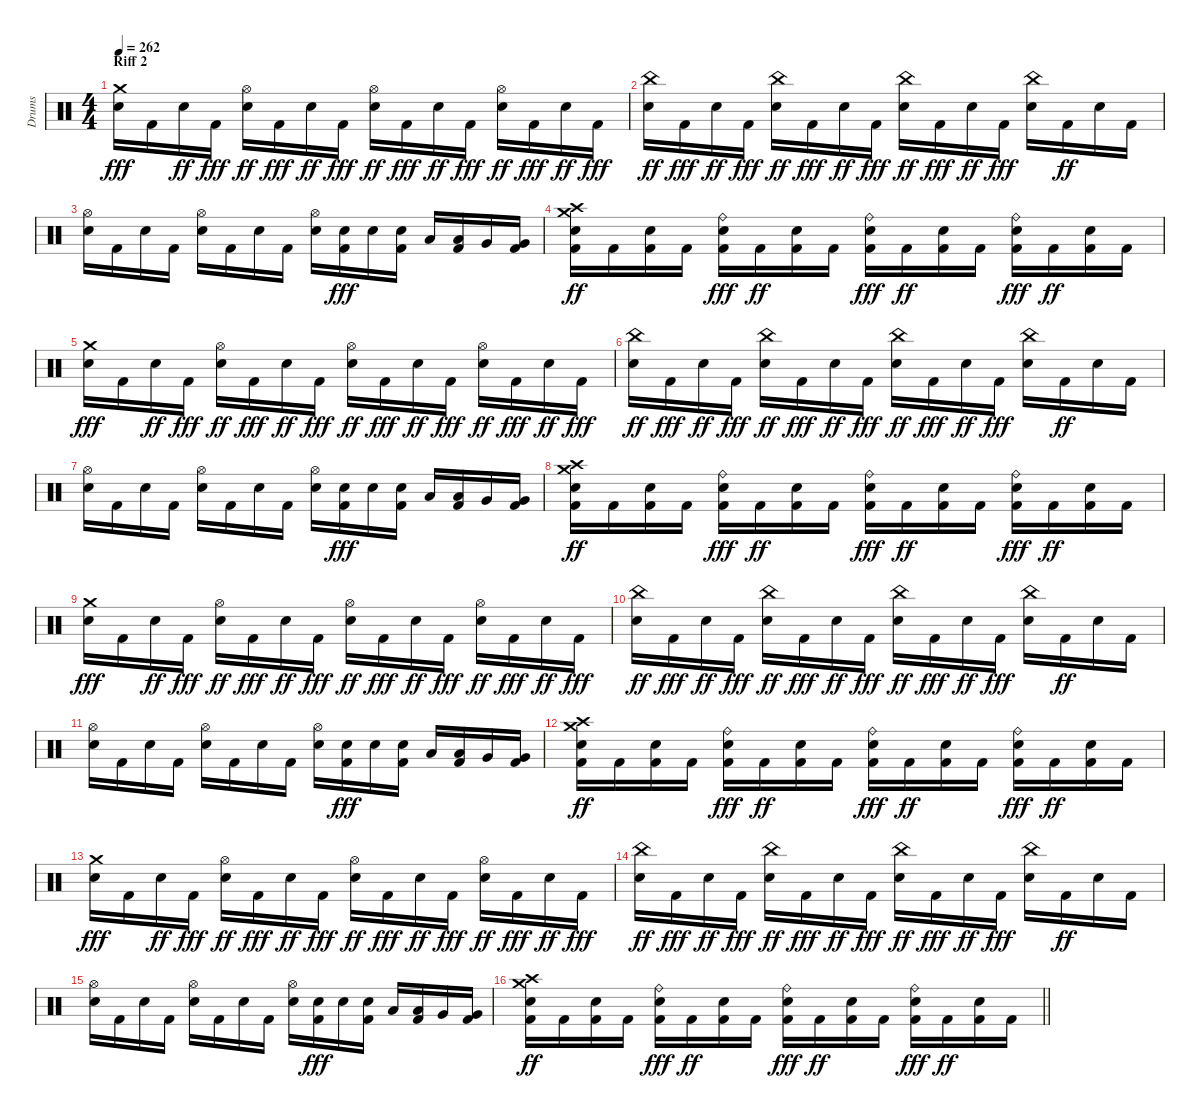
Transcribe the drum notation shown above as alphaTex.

\track ("Drums" "Drums") {instrument percussion}
\staff {score}
\articulation defaults
\ts (4 4)
\section ("" "Riff 2")
\tempo 262
\clef neutral
\ks c
("Crash medium (hit)" "Snare (hit) 2").16{dy fff} "Kick (hit) 2".16 "Snare (hit) 2".16{dy ff} "Kick (hit) 2".16{dy fff} ("Hi-Hat (open)" "Snare (hit) 2").16{dy ff} "Kick (hit) 2".16{dy fff} "Snare (hit) 2".16{dy ff} "Kick (hit) 2".16{dy fff} ("Hi-Hat (open)" "Snare (hit) 2").16{dy ff} "Kick (hit) 2".16{dy fff} "Snare (hit) 2".16{dy ff} "Kick (hit) 2".16{dy fff} ("Hi-Hat (open)" "Snare (hit) 2").16{dy ff} "Kick (hit) 2".16{dy fff} "Snare (hit) 2".16{dy ff} "Kick (hit) 2".16{dy fff} |
("China (hit)" "Snare (hit) 2").16{dy ff} "Kick (hit) 2".16{dy fff} "Snare (hit) 2".16{dy ff} "Kick (hit) 2".16{dy fff} ("China (hit)" "Snare (hit) 2").16{dy ff} "Kick (hit) 2".16{dy fff} "Snare (hit) 2".16{dy ff} "Kick (hit) 2".16{dy fff} ("China (hit)" "Snare (hit) 2").16{dy ff} "Kick (hit) 2".16{dy fff} "Snare (hit) 2".16{dy ff} "Kick (hit) 2".16{dy fff} ("China (hit)" "Snare (hit) 2").16 "Kick (hit) 2".16{dy ff} "Snare (hit) 2".16 "Kick (hit) 2".16 |
("Hi-Hat (open)" "Snare (hit) 2").16 "Kick (hit) 2".16 "Snare (hit) 2".16 "Kick (hit) 2".16 ("Hi-Hat (open)" "Snare (hit) 2").16 "Kick (hit) 2".16 "Snare (hit) 2".16 "Kick (hit) 2".16 ("Hi-Hat (open)" "Snare (hit) 2").16 ("Kick (hit) 2" "Snare (hit) 2").16{dy fff} "Snare (hit) 2".16 ("Kick (hit) 2" "Snare (hit) 2").16 "Low Tom (hit)".16 ("Kick (hit) 2" "Low Tom (hit)").16 "Very Low Tom (hit)".16 ("Kick (hit) 2" "Very Low Tom (hit)").16 |
("Crash high (hit)" "Crash medium (hit)" "Kick (hit) 2" "Snare (hit) 2").16{dy ff} "Kick (hit) 2".16 ("Kick (hit) 2" "Snare (hit) 2").16 "Kick (hit) 2".16 ("Kick (hit) 2" "Snare (hit) 2" "Ride (bell)").16{dy fff} "Kick (hit) 2".16{dy ff} ("Kick (hit) 2" "Snare (hit) 2").16 "Kick (hit) 2".16 ("Kick (hit) 2" "Snare (hit) 2" "Ride (bell)").16{dy fff} "Kick (hit) 2".16{dy ff} ("Kick (hit) 2" "Snare (hit) 2").16 "Kick (hit) 2".16 ("Kick (hit) 2" "Snare (hit) 2" "Ride (bell)").16{dy fff} "Kick (hit) 2".16{dy ff} ("Kick (hit) 2" "Snare (hit) 2").16 "Kick (hit) 2".16 |
("Crash medium (hit)" "Snare (hit) 2").16{dy fff} "Kick (hit) 2".16 "Snare (hit) 2".16{dy ff} "Kick (hit) 2".16{dy fff} ("Hi-Hat (open)" "Snare (hit) 2").16{dy ff} "Kick (hit) 2".16{dy fff} "Snare (hit) 2".16{dy ff} "Kick (hit) 2".16{dy fff} ("Hi-Hat (open)" "Snare (hit) 2").16{dy ff} "Kick (hit) 2".16{dy fff} "Snare (hit) 2".16{dy ff} "Kick (hit) 2".16{dy fff} ("Hi-Hat (open)" "Snare (hit) 2").16{dy ff} "Kick (hit) 2".16{dy fff} "Snare (hit) 2".16{dy ff} "Kick (hit) 2".16{dy fff} |
("China (hit)" "Snare (hit) 2").16{dy ff} "Kick (hit) 2".16{dy fff} "Snare (hit) 2".16{dy ff} "Kick (hit) 2".16{dy fff} ("China (hit)" "Snare (hit) 2").16{dy ff} "Kick (hit) 2".16{dy fff} "Snare (hit) 2".16{dy ff} "Kick (hit) 2".16{dy fff} ("China (hit)" "Snare (hit) 2").16{dy ff} "Kick (hit) 2".16{dy fff} "Snare (hit) 2".16{dy ff} "Kick (hit) 2".16{dy fff} ("China (hit)" "Snare (hit) 2").16 "Kick (hit) 2".16{dy ff} "Snare (hit) 2".16 "Kick (hit) 2".16 |
("Hi-Hat (open)" "Snare (hit) 2").16 "Kick (hit) 2".16 "Snare (hit) 2".16 "Kick (hit) 2".16 ("Hi-Hat (open)" "Snare (hit) 2").16 "Kick (hit) 2".16 "Snare (hit) 2".16 "Kick (hit) 2".16 ("Hi-Hat (open)" "Snare (hit) 2").16 ("Kick (hit) 2" "Snare (hit) 2").16{dy fff} "Snare (hit) 2".16 ("Kick (hit) 2" "Snare (hit) 2").16 "Low Tom (hit)".16 ("Kick (hit) 2" "Low Tom (hit)").16 "Very Low Tom (hit)".16 ("Kick (hit) 2" "Very Low Tom (hit)").16 |
("Crash high (hit)" "Crash medium (hit)" "Kick (hit) 2" "Snare (hit) 2").16{dy ff} "Kick (hit) 2".16 ("Kick (hit) 2" "Snare (hit) 2").16 "Kick (hit) 2".16 ("Kick (hit) 2" "Snare (hit) 2" "Ride (bell)").16{dy fff} "Kick (hit) 2".16{dy ff} ("Kick (hit) 2" "Snare (hit) 2").16 "Kick (hit) 2".16 ("Kick (hit) 2" "Snare (hit) 2" "Ride (bell)").16{dy fff} "Kick (hit) 2".16{dy ff} ("Kick (hit) 2" "Snare (hit) 2").16 "Kick (hit) 2".16 ("Kick (hit) 2" "Snare (hit) 2" "Ride (bell)").16{dy fff} "Kick (hit) 2".16{dy ff} ("Kick (hit) 2" "Snare (hit) 2").16 "Kick (hit) 2".16 |
("Crash medium (hit)" "Snare (hit) 2").16{dy fff} "Kick (hit) 2".16 "Snare (hit) 2".16{dy ff} "Kick (hit) 2".16{dy fff} ("Hi-Hat (open)" "Snare (hit) 2").16{dy ff} "Kick (hit) 2".16{dy fff} "Snare (hit) 2".16{dy ff} "Kick (hit) 2".16{dy fff} ("Hi-Hat (open)" "Snare (hit) 2").16{dy ff} "Kick (hit) 2".16{dy fff} "Snare (hit) 2".16{dy ff} "Kick (hit) 2".16{dy fff} ("Hi-Hat (open)" "Snare (hit) 2").16{dy ff} "Kick (hit) 2".16{dy fff} "Snare (hit) 2".16{dy ff} "Kick (hit) 2".16{dy fff} |
("China (hit)" "Snare (hit) 2").16{dy ff} "Kick (hit) 2".16{dy fff} "Snare (hit) 2".16{dy ff} "Kick (hit) 2".16{dy fff} ("China (hit)" "Snare (hit) 2").16{dy ff} "Kick (hit) 2".16{dy fff} "Snare (hit) 2".16{dy ff} "Kick (hit) 2".16{dy fff} ("China (hit)" "Snare (hit) 2").16{dy ff} "Kick (hit) 2".16{dy fff} "Snare (hit) 2".16{dy ff} "Kick (hit) 2".16{dy fff} ("China (hit)" "Snare (hit) 2").16 "Kick (hit) 2".16{dy ff} "Snare (hit) 2".16 "Kick (hit) 2".16 |
("Hi-Hat (open)" "Snare (hit) 2").16 "Kick (hit) 2".16 "Snare (hit) 2".16 "Kick (hit) 2".16 ("Hi-Hat (open)" "Snare (hit) 2").16 "Kick (hit) 2".16 "Snare (hit) 2".16 "Kick (hit) 2".16 ("Hi-Hat (open)" "Snare (hit) 2").16 ("Kick (hit) 2" "Snare (hit) 2").16{dy fff} "Snare (hit) 2".16 ("Kick (hit) 2" "Snare (hit) 2").16 "Low Tom (hit)".16 ("Kick (hit) 2" "Low Tom (hit)").16 "Very Low Tom (hit)".16 ("Kick (hit) 2" "Very Low Tom (hit)").16 |
("Crash high (hit)" "Crash medium (hit)" "Kick (hit) 2" "Snare (hit) 2").16{dy ff} "Kick (hit) 2".16 ("Kick (hit) 2" "Snare (hit) 2").16 "Kick (hit) 2".16 ("Kick (hit) 2" "Snare (hit) 2" "Ride (bell)").16{dy fff} "Kick (hit) 2".16{dy ff} ("Kick (hit) 2" "Snare (hit) 2").16 "Kick (hit) 2".16 ("Kick (hit) 2" "Snare (hit) 2" "Ride (bell)").16{dy fff} "Kick (hit) 2".16{dy ff} ("Kick (hit) 2" "Snare (hit) 2").16 "Kick (hit) 2".16 ("Kick (hit) 2" "Snare (hit) 2" "Ride (bell)").16{dy fff} "Kick (hit) 2".16{dy ff} ("Kick (hit) 2" "Snare (hit) 2").16 "Kick (hit) 2".16 |
("Crash medium (hit)" "Snare (hit) 2").16{dy fff} "Kick (hit) 2".16 "Snare (hit) 2".16{dy ff} "Kick (hit) 2".16{dy fff} ("Hi-Hat (open)" "Snare (hit) 2").16{dy ff} "Kick (hit) 2".16{dy fff} "Snare (hit) 2".16{dy ff} "Kick (hit) 2".16{dy fff} ("Hi-Hat (open)" "Snare (hit) 2").16{dy ff} "Kick (hit) 2".16{dy fff} "Snare (hit) 2".16{dy ff} "Kick (hit) 2".16{dy fff} ("Hi-Hat (open)" "Snare (hit) 2").16{dy ff} "Kick (hit) 2".16{dy fff} "Snare (hit) 2".16{dy ff} "Kick (hit) 2".16{dy fff} |
("China (hit)" "Snare (hit) 2").16{dy ff} "Kick (hit) 2".16{dy fff} "Snare (hit) 2".16{dy ff} "Kick (hit) 2".16{dy fff} ("China (hit)" "Snare (hit) 2").16{dy ff} "Kick (hit) 2".16{dy fff} "Snare (hit) 2".16{dy ff} "Kick (hit) 2".16{dy fff} ("China (hit)" "Snare (hit) 2").16{dy ff} "Kick (hit) 2".16{dy fff} "Snare (hit) 2".16{dy ff} "Kick (hit) 2".16{dy fff} ("China (hit)" "Snare (hit) 2").16 "Kick (hit) 2".16{dy ff} "Snare (hit) 2".16 "Kick (hit) 2".16 |
("Hi-Hat (open)" "Snare (hit) 2").16 "Kick (hit) 2".16 "Snare (hit) 2".16 "Kick (hit) 2".16 ("Hi-Hat (open)" "Snare (hit) 2").16 "Kick (hit) 2".16 "Snare (hit) 2".16 "Kick (hit) 2".16 ("Hi-Hat (open)" "Snare (hit) 2").16 ("Kick (hit) 2" "Snare (hit) 2").16{dy fff} "Snare (hit) 2".16 ("Kick (hit) 2" "Snare (hit) 2").16 "Low Tom (hit)".16 ("Kick (hit) 2" "Low Tom (hit)").16 "Very Low Tom (hit)".16 ("Kick (hit) 2" "Very Low Tom (hit)").16 |
\barLineRight lightlight
("Crash high (hit)" "Crash medium (hit)" "Kick (hit) 2" "Snare (hit) 2").16{dy ff} "Kick (hit) 2".16 ("Kick (hit) 2" "Snare (hit) 2").16 "Kick (hit) 2".16 ("Kick (hit) 2" "Snare (hit) 2" "Ride (bell)").16{dy fff} "Kick (hit) 2".16{dy ff} ("Kick (hit) 2" "Snare (hit) 2").16 "Kick (hit) 2".16 ("Kick (hit) 2" "Snare (hit) 2" "Ride (bell)").16{dy fff} "Kick (hit) 2".16{dy ff} ("Kick (hit) 2" "Snare (hit) 2").16 "Kick (hit) 2".16 ("Kick (hit) 2" "Snare (hit) 2" "Ride (bell)").16{dy fff} "Kick (hit) 2".16{dy ff} ("Kick (hit) 2" "Snare (hit) 2").16 "Kick (hit) 2".16
